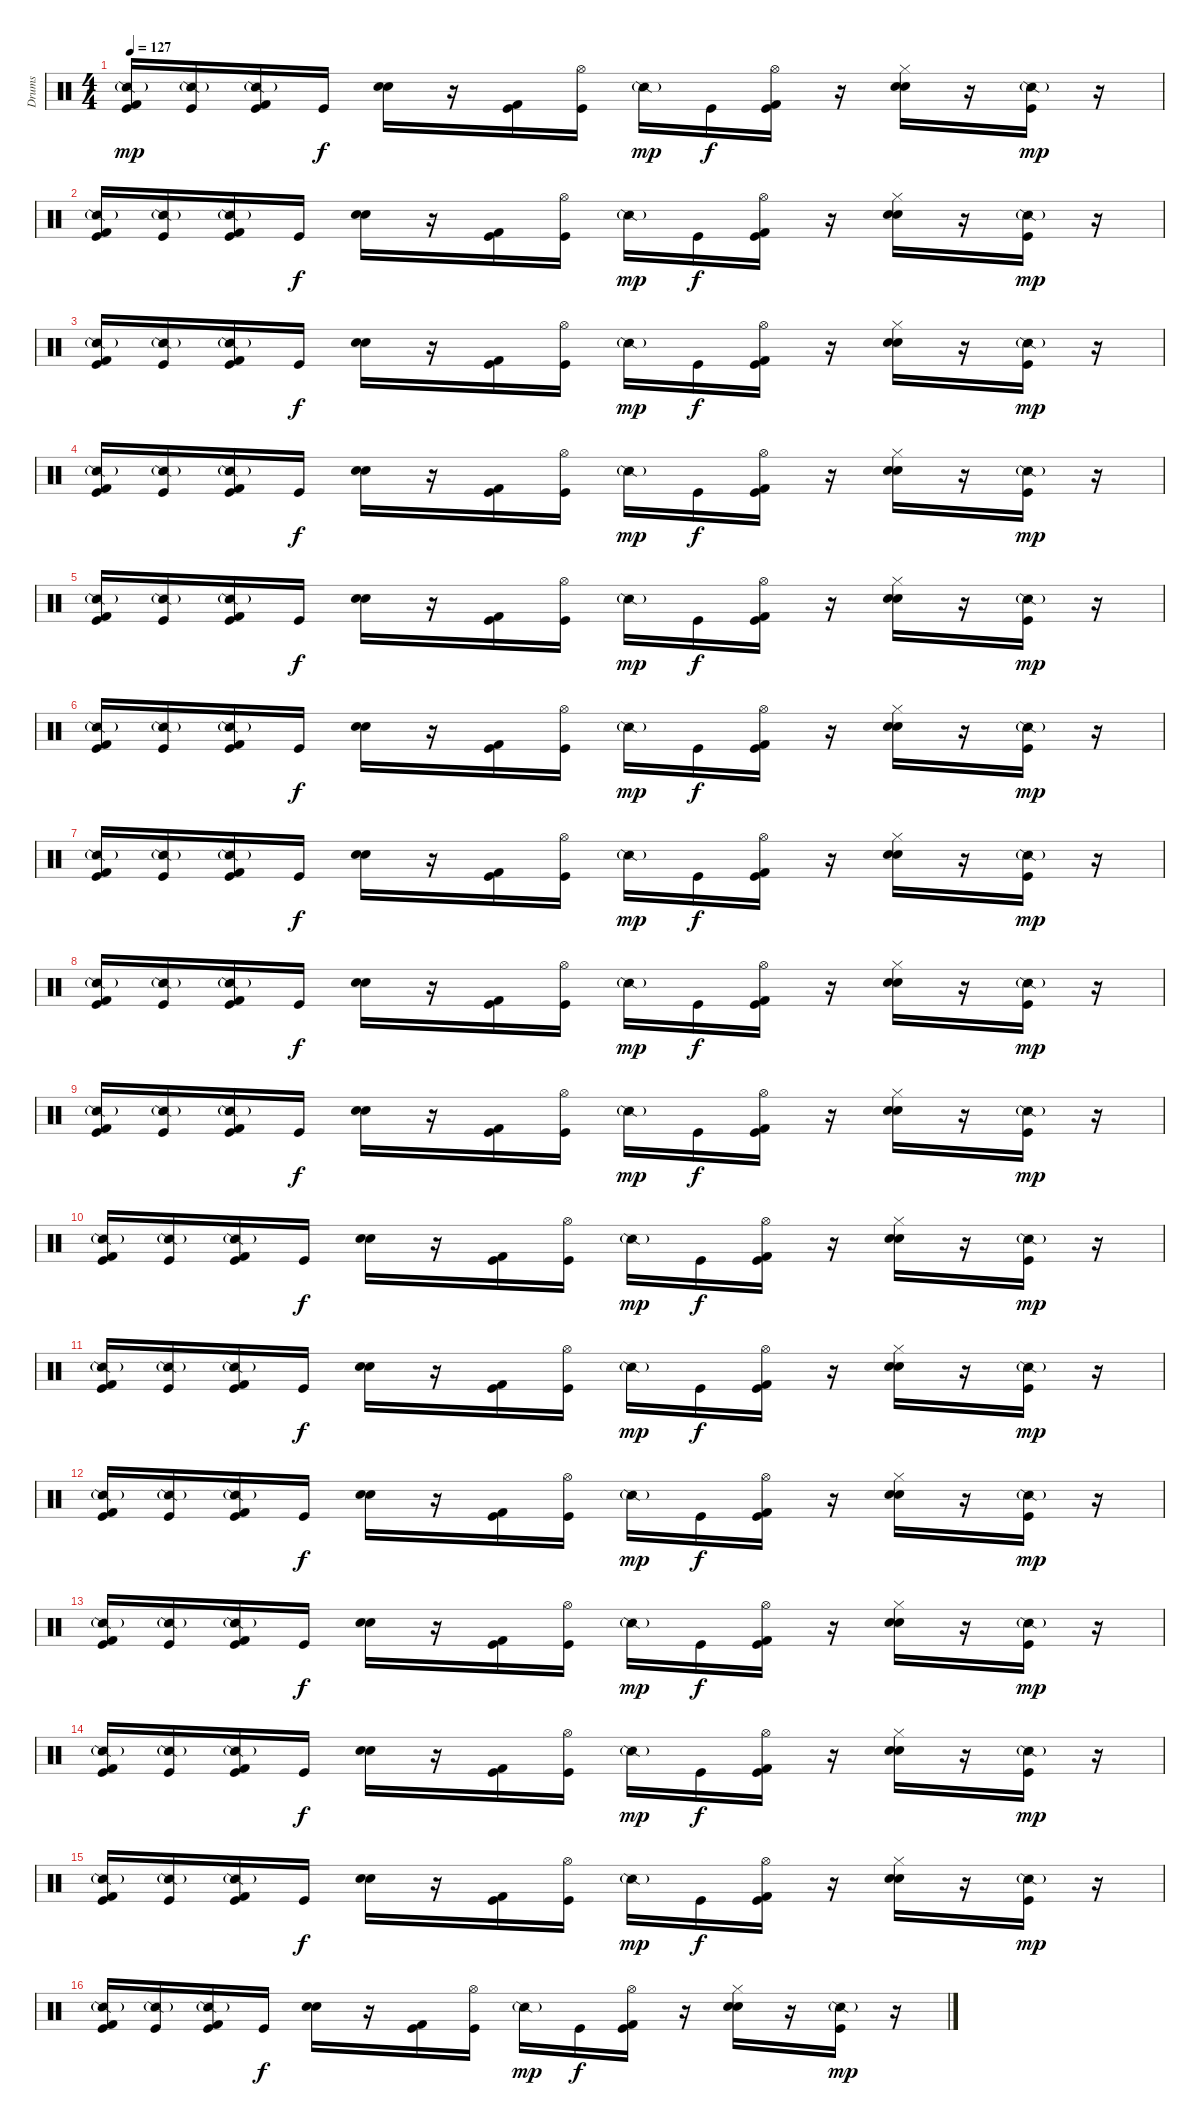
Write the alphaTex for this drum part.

\track ("Drums" "Drums") {instrument percussion}
\staff {score}
\articulation defaults
\ts (4 4)
\tempo 127
\clef neutral
\ks c
("Snare (side stick) 2"{g} "Kick (hit) 2" "Kick (hit)").16{dy mp} ("Snare (side stick) 2"{g} "Kick (hit)").16 ("Snare (side stick) 2"{g} "Kick (hit) 2" "Kick (hit)").16 "Kick (hit)".16{dy f} ("Snare (hit) 2" "Hand Clap (hit)").16 r.16 ("Kick (hit) 2" "Kick (hit)").16 ("Hi-Hat (open)" "Kick (hit)").16 "Snare (side stick) 2"{g}.16{dy mp} "Kick (hit)".16{dy f} ("Hi-Hat (open)" "Kick (hit) 2" "Kick (hit)").16 r.16 ("Hi-Hat (closed)" "Snare (hit) 2" "Hand Clap (hit)").16 r.16 ("Snare (side stick) 2"{g} "Kick (hit)").16{dy mp} r.16 |
("Snare (side stick) 2"{g} "Kick (hit) 2" "Kick (hit)").16 ("Snare (side stick) 2"{g} "Kick (hit)").16 ("Snare (side stick) 2"{g} "Kick (hit) 2" "Kick (hit)").16 "Kick (hit)".16{dy f} ("Snare (hit) 2" "Hand Clap (hit)").16 r.16 ("Kick (hit) 2" "Kick (hit)").16 ("Hi-Hat (open)" "Kick (hit)").16 "Snare (side stick) 2"{g}.16{dy mp} "Kick (hit)".16{dy f} ("Hi-Hat (open)" "Kick (hit) 2" "Kick (hit)").16 r.16 ("Hi-Hat (closed)" "Snare (hit) 2" "Hand Clap (hit)").16 r.16 ("Snare (side stick) 2"{g} "Kick (hit)").16{dy mp} r.16 |
("Snare (side stick) 2"{g} "Kick (hit) 2" "Kick (hit)").16 ("Snare (side stick) 2"{g} "Kick (hit)").16 ("Snare (side stick) 2"{g} "Kick (hit) 2" "Kick (hit)").16 "Kick (hit)".16{dy f} ("Snare (hit) 2" "Hand Clap (hit)").16 r.16 ("Kick (hit) 2" "Kick (hit)").16 ("Hi-Hat (open)" "Kick (hit)").16 "Snare (side stick) 2"{g}.16{dy mp} "Kick (hit)".16{dy f} ("Hi-Hat (open)" "Kick (hit) 2" "Kick (hit)").16 r.16 ("Hi-Hat (closed)" "Snare (hit) 2" "Hand Clap (hit)").16 r.16 ("Snare (side stick) 2"{g} "Kick (hit)").16{dy mp} r.16 |
("Snare (side stick) 2"{g} "Kick (hit) 2" "Kick (hit)").16 ("Snare (side stick) 2"{g} "Kick (hit)").16 ("Snare (side stick) 2"{g} "Kick (hit) 2" "Kick (hit)").16 "Kick (hit)".16{dy f} ("Snare (hit) 2" "Hand Clap (hit)").16 r.16 ("Kick (hit) 2" "Kick (hit)").16 ("Hi-Hat (open)" "Kick (hit)").16 "Snare (side stick) 2"{g}.16{dy mp} "Kick (hit)".16{dy f} ("Hi-Hat (open)" "Kick (hit) 2" "Kick (hit)").16 r.16 ("Hi-Hat (closed)" "Snare (hit) 2" "Hand Clap (hit)").16 r.16 ("Snare (side stick) 2"{g} "Kick (hit)").16{dy mp} r.16 |
("Snare (side stick) 2"{g} "Kick (hit) 2" "Kick (hit)").16 ("Snare (side stick) 2"{g} "Kick (hit)").16 ("Snare (side stick) 2"{g} "Kick (hit) 2" "Kick (hit)").16 "Kick (hit)".16{dy f} ("Snare (hit) 2" "Hand Clap (hit)").16 r.16 ("Kick (hit) 2" "Kick (hit)").16 ("Hi-Hat (open)" "Kick (hit)").16 "Snare (side stick) 2"{g}.16{dy mp} "Kick (hit)".16{dy f} ("Hi-Hat (open)" "Kick (hit) 2" "Kick (hit)").16 r.16 ("Hi-Hat (closed)" "Snare (hit) 2" "Hand Clap (hit)").16 r.16 ("Snare (side stick) 2"{g} "Kick (hit)").16{dy mp} r.16 |
("Snare (side stick) 2"{g} "Kick (hit) 2" "Kick (hit)").16 ("Snare (side stick) 2"{g} "Kick (hit)").16 ("Snare (side stick) 2"{g} "Kick (hit) 2" "Kick (hit)").16 "Kick (hit)".16{dy f} ("Snare (hit) 2" "Hand Clap (hit)").16 r.16 ("Kick (hit) 2" "Kick (hit)").16 ("Hi-Hat (open)" "Kick (hit)").16 "Snare (side stick) 2"{g}.16{dy mp} "Kick (hit)".16{dy f} ("Hi-Hat (open)" "Kick (hit) 2" "Kick (hit)").16 r.16 ("Hi-Hat (closed)" "Snare (hit) 2" "Hand Clap (hit)").16 r.16 ("Snare (side stick) 2"{g} "Kick (hit)").16{dy mp} r.16 |
("Snare (side stick) 2"{g} "Kick (hit) 2" "Kick (hit)").16 ("Snare (side stick) 2"{g} "Kick (hit)").16 ("Snare (side stick) 2"{g} "Kick (hit) 2" "Kick (hit)").16 "Kick (hit)".16{dy f} ("Snare (hit) 2" "Hand Clap (hit)").16 r.16 ("Kick (hit) 2" "Kick (hit)").16 ("Hi-Hat (open)" "Kick (hit)").16 "Snare (side stick) 2"{g}.16{dy mp} "Kick (hit)".16{dy f} ("Hi-Hat (open)" "Kick (hit) 2" "Kick (hit)").16 r.16 ("Hi-Hat (closed)" "Snare (hit) 2" "Hand Clap (hit)").16 r.16 ("Snare (side stick) 2"{g} "Kick (hit)").16{dy mp} r.16 |
("Snare (side stick) 2"{g} "Kick (hit) 2" "Kick (hit)").16 ("Snare (side stick) 2"{g} "Kick (hit)").16 ("Snare (side stick) 2"{g} "Kick (hit) 2" "Kick (hit)").16 "Kick (hit)".16{dy f} ("Snare (hit) 2" "Hand Clap (hit)").16 r.16 ("Kick (hit) 2" "Kick (hit)").16 ("Hi-Hat (open)" "Kick (hit)").16 "Snare (side stick) 2"{g}.16{dy mp} "Kick (hit)".16{dy f} ("Hi-Hat (open)" "Kick (hit) 2" "Kick (hit)").16 r.16 ("Hi-Hat (closed)" "Snare (hit) 2" "Hand Clap (hit)").16 r.16 ("Snare (side stick) 2"{g} "Kick (hit)").16{dy mp} r.16 |
("Snare (side stick) 2"{g} "Kick (hit) 2" "Kick (hit)").16 ("Snare (side stick) 2"{g} "Kick (hit)").16 ("Snare (side stick) 2"{g} "Kick (hit) 2" "Kick (hit)").16 "Kick (hit)".16{dy f} ("Snare (hit) 2" "Hand Clap (hit)").16 r.16 ("Kick (hit) 2" "Kick (hit)").16 ("Hi-Hat (open)" "Kick (hit)").16 "Snare (side stick) 2"{g}.16{dy mp} "Kick (hit)".16{dy f} ("Hi-Hat (open)" "Kick (hit) 2" "Kick (hit)").16 r.16 ("Hi-Hat (closed)" "Snare (hit) 2" "Hand Clap (hit)").16 r.16 ("Snare (side stick) 2"{g} "Kick (hit)").16{dy mp} r.16 |
("Snare (side stick) 2"{g} "Kick (hit) 2" "Kick (hit)").16 ("Snare (side stick) 2"{g} "Kick (hit)").16 ("Snare (side stick) 2"{g} "Kick (hit) 2" "Kick (hit)").16 "Kick (hit)".16{dy f} ("Snare (hit) 2" "Hand Clap (hit)").16 r.16 ("Kick (hit) 2" "Kick (hit)").16 ("Hi-Hat (open)" "Kick (hit)").16 "Snare (side stick) 2"{g}.16{dy mp} "Kick (hit)".16{dy f} ("Hi-Hat (open)" "Kick (hit) 2" "Kick (hit)").16 r.16 ("Hi-Hat (closed)" "Snare (hit) 2" "Hand Clap (hit)").16 r.16 ("Snare (side stick) 2"{g} "Kick (hit)").16{dy mp} r.16 |
("Snare (side stick) 2"{g} "Kick (hit) 2" "Kick (hit)").16 ("Snare (side stick) 2"{g} "Kick (hit)").16 ("Snare (side stick) 2"{g} "Kick (hit) 2" "Kick (hit)").16 "Kick (hit)".16{dy f} ("Snare (hit) 2" "Hand Clap (hit)").16 r.16 ("Kick (hit) 2" "Kick (hit)").16 ("Hi-Hat (open)" "Kick (hit)").16 "Snare (side stick) 2"{g}.16{dy mp} "Kick (hit)".16{dy f} ("Hi-Hat (open)" "Kick (hit) 2" "Kick (hit)").16 r.16 ("Hi-Hat (closed)" "Snare (hit) 2" "Hand Clap (hit)").16 r.16 ("Snare (side stick) 2"{g} "Kick (hit)").16{dy mp} r.16 |
("Snare (side stick) 2"{g} "Kick (hit) 2" "Kick (hit)").16 ("Snare (side stick) 2"{g} "Kick (hit)").16 ("Snare (side stick) 2"{g} "Kick (hit) 2" "Kick (hit)").16 "Kick (hit)".16{dy f} ("Snare (hit) 2" "Hand Clap (hit)").16 r.16 ("Kick (hit) 2" "Kick (hit)").16 ("Hi-Hat (open)" "Kick (hit)").16 "Snare (side stick) 2"{g}.16{dy mp} "Kick (hit)".16{dy f} ("Hi-Hat (open)" "Kick (hit) 2" "Kick (hit)").16 r.16 ("Hi-Hat (closed)" "Snare (hit) 2" "Hand Clap (hit)").16 r.16 ("Snare (side stick) 2"{g} "Kick (hit)").16{dy mp} r.16 |
("Snare (side stick) 2"{g} "Kick (hit) 2" "Kick (hit)").16 ("Snare (side stick) 2"{g} "Kick (hit)").16 ("Snare (side stick) 2"{g} "Kick (hit) 2" "Kick (hit)").16 "Kick (hit)".16{dy f} ("Snare (hit) 2" "Hand Clap (hit)").16 r.16 ("Kick (hit) 2" "Kick (hit)").16 ("Hi-Hat (open)" "Kick (hit)").16 "Snare (side stick) 2"{g}.16{dy mp} "Kick (hit)".16{dy f} ("Hi-Hat (open)" "Kick (hit) 2" "Kick (hit)").16 r.16 ("Hi-Hat (closed)" "Snare (hit) 2" "Hand Clap (hit)").16 r.16 ("Snare (side stick) 2"{g} "Kick (hit)").16{dy mp} r.16 |
("Snare (side stick) 2"{g} "Kick (hit) 2" "Kick (hit)").16 ("Snare (side stick) 2"{g} "Kick (hit)").16 ("Snare (side stick) 2"{g} "Kick (hit) 2" "Kick (hit)").16 "Kick (hit)".16{dy f} ("Snare (hit) 2" "Hand Clap (hit)").16 r.16 ("Kick (hit) 2" "Kick (hit)").16 ("Hi-Hat (open)" "Kick (hit)").16 "Snare (side stick) 2"{g}.16{dy mp} "Kick (hit)".16{dy f} ("Hi-Hat (open)" "Kick (hit) 2" "Kick (hit)").16 r.16 ("Hi-Hat (closed)" "Snare (hit) 2" "Hand Clap (hit)").16 r.16 ("Snare (side stick) 2"{g} "Kick (hit)").16{dy mp} r.16 |
("Snare (side stick) 2"{g} "Kick (hit) 2" "Kick (hit)").16 ("Snare (side stick) 2"{g} "Kick (hit)").16 ("Snare (side stick) 2"{g} "Kick (hit) 2" "Kick (hit)").16 "Kick (hit)".16{dy f} ("Snare (hit) 2" "Hand Clap (hit)").16 r.16 ("Kick (hit) 2" "Kick (hit)").16 ("Hi-Hat (open)" "Kick (hit)").16 "Snare (side stick) 2"{g}.16{dy mp} "Kick (hit)".16{dy f} ("Hi-Hat (open)" "Kick (hit) 2" "Kick (hit)").16 r.16 ("Hi-Hat (closed)" "Snare (hit) 2" "Hand Clap (hit)").16 r.16 ("Snare (side stick) 2"{g} "Kick (hit)").16{dy mp} r.16 |
("Snare (side stick) 2"{g} "Kick (hit) 2" "Kick (hit)").16 ("Snare (side stick) 2"{g} "Kick (hit)").16 ("Snare (side stick) 2"{g} "Kick (hit) 2" "Kick (hit)").16 "Kick (hit)".16{dy f} ("Snare (hit) 2" "Hand Clap (hit)").16 r.16 ("Kick (hit) 2" "Kick (hit)").16 ("Hi-Hat (open)" "Kick (hit)").16 "Snare (side stick) 2"{g}.16{dy mp} "Kick (hit)".16{dy f} ("Hi-Hat (open)" "Kick (hit) 2" "Kick (hit)").16 r.16 ("Hi-Hat (closed)" "Snare (hit) 2" "Hand Clap (hit)").16 r.16 ("Snare (side stick) 2"{g} "Kick (hit)").16{dy mp} r.16
